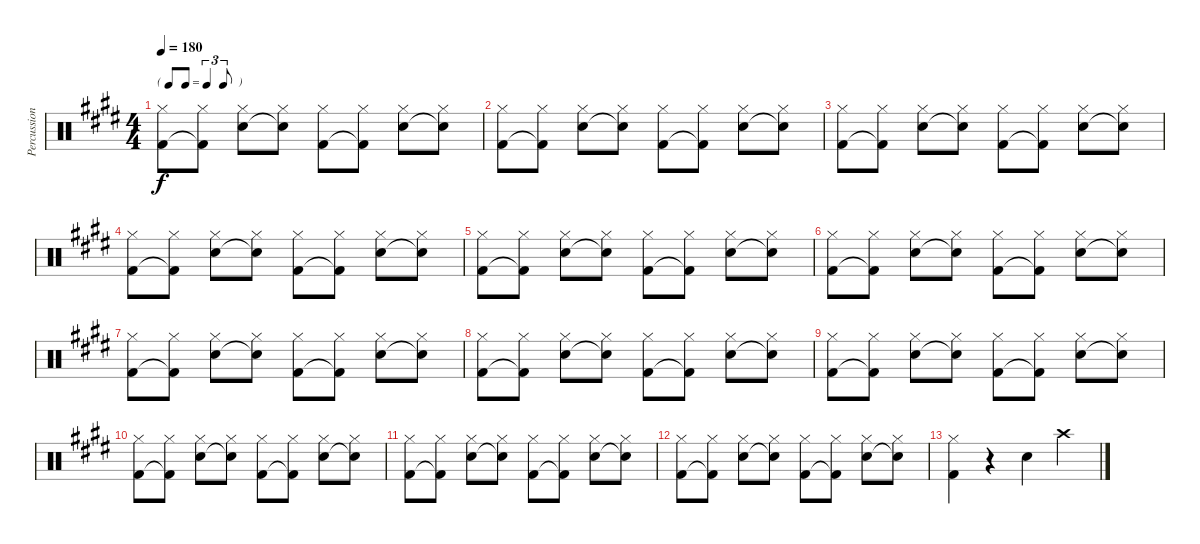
\track ("Percussion" "Percussion") {instrument percussion}
\staff {score}
\articulation defaults
\ts (4 4)
\tf triplet8th
\tempo 180
\clef neutral
\ks e
("Hi-Hat (closed)" "Kick (hit) 2").8{dy f} ("Hi-Hat (closed)" "Kick (hit) 2"{t}).8 ("Hi-Hat (closed)" "Snare (hit) 2").8 ("Hi-Hat (closed)" "Snare (hit) 2"{t}).8 ("Hi-Hat (closed)" "Kick (hit) 2").8 ("Hi-Hat (closed)" "Kick (hit) 2"{t}).8 ("Hi-Hat (closed)" "Snare (hit) 2").8 ("Hi-Hat (closed)" "Snare (hit) 2"{t}).8 |
("Hi-Hat (closed)" "Kick (hit) 2").8 ("Hi-Hat (closed)" "Kick (hit) 2"{t}).8 ("Hi-Hat (closed)" "Snare (hit) 2").8 ("Hi-Hat (closed)" "Snare (hit) 2"{t}).8 ("Hi-Hat (closed)" "Kick (hit) 2").8 ("Hi-Hat (closed)" "Kick (hit) 2"{t}).8 ("Hi-Hat (closed)" "Snare (hit) 2").8 ("Hi-Hat (closed)" "Snare (hit) 2"{t}).8 |
("Hi-Hat (closed)" "Kick (hit) 2").8 ("Hi-Hat (closed)" "Kick (hit) 2"{t}).8 ("Hi-Hat (closed)" "Snare (hit) 2").8 ("Hi-Hat (closed)" "Snare (hit) 2"{t}).8 ("Hi-Hat (closed)" "Kick (hit) 2").8 ("Hi-Hat (closed)" "Kick (hit) 2"{t}).8 ("Hi-Hat (closed)" "Snare (hit) 2").8 ("Hi-Hat (closed)" "Snare (hit) 2"{t}).8 |
("Hi-Hat (closed)" "Kick (hit) 2").8 ("Hi-Hat (closed)" "Kick (hit) 2"{t}).8 ("Hi-Hat (closed)" "Snare (hit) 2").8 ("Hi-Hat (closed)" "Snare (hit) 2"{t}).8 ("Hi-Hat (closed)" "Kick (hit) 2").8 ("Hi-Hat (closed)" "Kick (hit) 2"{t}).8 ("Hi-Hat (closed)" "Snare (hit) 2").8 ("Hi-Hat (closed)" "Snare (hit) 2"{t}).8 |
("Hi-Hat (closed)" "Kick (hit) 2").8 ("Hi-Hat (closed)" "Kick (hit) 2"{t}).8 ("Hi-Hat (closed)" "Snare (hit) 2").8 ("Hi-Hat (closed)" "Snare (hit) 2"{t}).8 ("Hi-Hat (closed)" "Kick (hit) 2").8 ("Hi-Hat (closed)" "Kick (hit) 2"{t}).8 ("Hi-Hat (closed)" "Snare (hit) 2").8 ("Hi-Hat (closed)" "Snare (hit) 2"{t}).8 |
("Hi-Hat (closed)" "Kick (hit) 2").8 ("Hi-Hat (closed)" "Kick (hit) 2"{t}).8 ("Hi-Hat (closed)" "Snare (hit) 2").8 ("Hi-Hat (closed)" "Snare (hit) 2"{t}).8 ("Hi-Hat (closed)" "Kick (hit) 2").8 ("Hi-Hat (closed)" "Kick (hit) 2"{t}).8 ("Hi-Hat (closed)" "Snare (hit) 2").8 ("Hi-Hat (closed)" "Snare (hit) 2"{t}).8 |
("Hi-Hat (closed)" "Kick (hit) 2").8 ("Hi-Hat (closed)" "Kick (hit) 2"{t}).8 ("Hi-Hat (closed)" "Snare (hit) 2").8 ("Hi-Hat (closed)" "Snare (hit) 2"{t}).8 ("Hi-Hat (closed)" "Kick (hit) 2").8 ("Hi-Hat (closed)" "Kick (hit) 2"{t}).8 ("Hi-Hat (closed)" "Snare (hit) 2").8 ("Hi-Hat (closed)" "Snare (hit) 2"{t}).8 |
("Hi-Hat (closed)" "Kick (hit) 2").8 ("Hi-Hat (closed)" "Kick (hit) 2"{t}).8 ("Hi-Hat (closed)" "Snare (hit) 2").8 ("Hi-Hat (closed)" "Snare (hit) 2"{t}).8 ("Hi-Hat (closed)" "Kick (hit) 2").8 ("Hi-Hat (closed)" "Kick (hit) 2"{t}).8 ("Hi-Hat (closed)" "Snare (hit) 2").8 ("Hi-Hat (closed)" "Snare (hit) 2"{t}).8 |
("Hi-Hat (closed)" "Kick (hit) 2").8 ("Hi-Hat (closed)" "Kick (hit) 2"{t}).8 ("Hi-Hat (closed)" "Snare (hit) 2").8 ("Hi-Hat (closed)" "Snare (hit) 2"{t}).8 ("Hi-Hat (closed)" "Kick (hit) 2").8 ("Hi-Hat (closed)" "Kick (hit) 2"{t}).8 ("Hi-Hat (closed)" "Snare (hit) 2").8 ("Hi-Hat (closed)" "Snare (hit) 2"{t}).8 |
("Hi-Hat (closed)" "Kick (hit) 2").8 ("Hi-Hat (closed)" "Kick (hit) 2"{t}).8 ("Hi-Hat (closed)" "Snare (hit) 2").8 ("Hi-Hat (closed)" "Snare (hit) 2"{t}).8 ("Hi-Hat (closed)" "Kick (hit) 2").8 ("Hi-Hat (closed)" "Kick (hit) 2"{t}).8 ("Hi-Hat (closed)" "Snare (hit) 2").8 ("Hi-Hat (closed)" "Snare (hit) 2"{t}).8 |
("Hi-Hat (closed)" "Kick (hit) 2").8 ("Hi-Hat (closed)" "Kick (hit) 2"{t}).8 ("Hi-Hat (closed)" "Snare (hit) 2").8 ("Hi-Hat (closed)" "Snare (hit) 2"{t}).8 ("Hi-Hat (closed)" "Kick (hit) 2").8 ("Hi-Hat (closed)" "Kick (hit) 2"{t}).8 ("Hi-Hat (closed)" "Snare (hit) 2").8 ("Hi-Hat (closed)" "Snare (hit) 2"{t}).8 |
("Hi-Hat (closed)" "Kick (hit) 2").8 ("Hi-Hat (closed)" "Kick (hit) 2"{t}).8 ("Hi-Hat (closed)" "Snare (hit) 2").8 ("Hi-Hat (closed)" "Snare (hit) 2"{t}).8 ("Hi-Hat (closed)" "Kick (hit) 2").8 ("Hi-Hat (closed)" "Kick (hit) 2"{t}).8 ("Hi-Hat (closed)" "Snare (hit) 2").8 ("Hi-Hat (closed)" "Snare (hit) 2"{t}).8 |
("Hi-Hat (closed)" "Kick (hit) 2").4 r.4 "Snare (hit) 2".4 "Crash high (hit)".4
